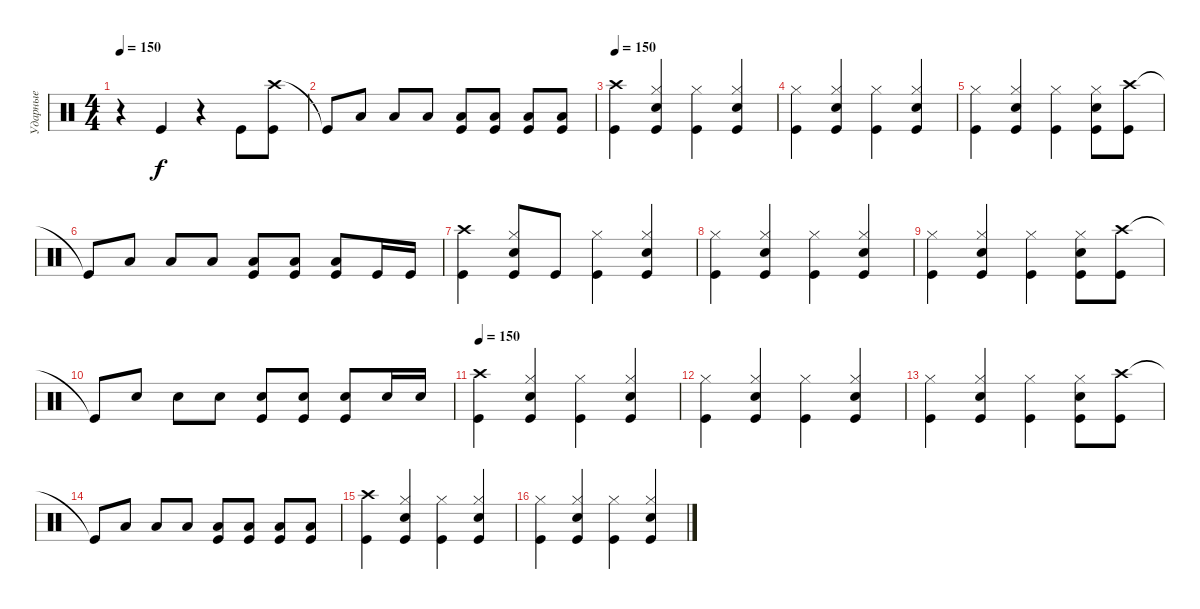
\track ("Ударные" "Ударные") {instrument percussion}
\staff {score}
\articulation defaults
\ts (4 4)
\tempo 150
\clef neutral
\ks c
r.4{dy f} "Kick (hit)".4 r.4 "Kick (hit)".8 ("Crash high (hit)" "Kick (hit)").8 |
"Kick (hit)"{t}.8 "Low Tom (hit)".8 "Low Tom (hit)".8 "Low Tom (hit)".8 ("Low Tom (hit)" "Kick (hit)").8 ("Low Tom (hit)" "Kick (hit)").8 ("Low Tom (hit)" "Kick (hit)").8 ("Low Tom (hit)" "Kick (hit)").8 |
\tempo 150
("Crash high (hit)" "Kick (hit)").4 ("Hi-Hat (closed)" "Electric Snare (hit)" "Kick (hit)").4 ("Hi-Hat (closed)" "Kick (hit)").4 ("Hi-Hat (closed)" "Electric Snare (hit)" "Kick (hit)").4 |
("Hi-Hat (closed)" "Kick (hit)").4 ("Hi-Hat (closed)" "Electric Snare (hit)" "Kick (hit)").4 ("Hi-Hat (closed)" "Kick (hit)").4 ("Hi-Hat (closed)" "Electric Snare (hit)" "Kick (hit)").4 |
("Hi-Hat (closed)" "Kick (hit)").4 ("Hi-Hat (closed)" "Electric Snare (hit)" "Kick (hit)").4 ("Hi-Hat (closed)" "Kick (hit)").4 ("Hi-Hat (closed)" "Electric Snare (hit)" "Kick (hit)").8 ("Crash high (hit)" "Kick (hit)").8 |
"Kick (hit)"{t}.8 "Low Tom (hit)".8 "Low Tom (hit)".8 "Low Tom (hit)".8 ("Low Tom (hit)" "Kick (hit)").8 ("Low Tom (hit)" "Kick (hit)").8 ("Low Tom (hit)" "Kick (hit)").8 "Kick (hit)".16 "Kick (hit)".16 |
("Crash high (hit)" "Kick (hit)").4 ("Hi-Hat (closed)" "Electric Snare (hit)" "Kick (hit)").8 "Kick (hit)".8 ("Hi-Hat (closed)" "Kick (hit)").4 ("Hi-Hat (closed)" "Electric Snare (hit)" "Kick (hit)").4 |
("Hi-Hat (closed)" "Kick (hit)").4 ("Hi-Hat (closed)" "Electric Snare (hit)" "Kick (hit)").4 ("Hi-Hat (closed)" "Kick (hit)").4 ("Hi-Hat (closed)" "Electric Snare (hit)" "Kick (hit)").4 |
("Hi-Hat (closed)" "Kick (hit)").4 ("Hi-Hat (closed)" "Electric Snare (hit)" "Kick (hit)").4 ("Hi-Hat (closed)" "Kick (hit)").4 ("Hi-Hat (closed)" "Electric Snare (hit)" "Kick (hit)").8 ("Crash high (hit)" "Kick (hit)").8 |
"Kick (hit)"{t}.8 "Electric Snare (hit)".8 "Electric Snare (hit)".8 "Electric Snare (hit)".8 ("Electric Snare (hit)" "Kick (hit)").8 ("Electric Snare (hit)" "Kick (hit)").8 ("Electric Snare (hit)" "Kick (hit)").8 "Electric Snare (hit)".16 "Electric Snare (hit)".16 |
\tempo 150
("Crash high (hit)" "Kick (hit)").4 ("Hi-Hat (closed)" "Electric Snare (hit)" "Kick (hit)").4 ("Hi-Hat (closed)" "Kick (hit)").4 ("Hi-Hat (closed)" "Electric Snare (hit)" "Kick (hit)").4 |
("Hi-Hat (closed)" "Kick (hit)").4 ("Hi-Hat (closed)" "Electric Snare (hit)" "Kick (hit)").4 ("Hi-Hat (closed)" "Kick (hit)").4 ("Hi-Hat (closed)" "Electric Snare (hit)" "Kick (hit)").4 |
("Hi-Hat (closed)" "Kick (hit)").4 ("Hi-Hat (closed)" "Electric Snare (hit)" "Kick (hit)").4 ("Hi-Hat (closed)" "Kick (hit)").4 ("Hi-Hat (closed)" "Electric Snare (hit)" "Kick (hit)").8 ("Crash high (hit)" "Kick (hit)").8 |
"Kick (hit)"{t}.8 "Low Tom (hit)".8 "Low Tom (hit)".8 "Low Tom (hit)".8 ("Low Tom (hit)" "Kick (hit)").8 ("Low Tom (hit)" "Kick (hit)").8 ("Low Tom (hit)" "Kick (hit)").8 ("Low Tom (hit)" "Kick (hit)").8 |
("Crash high (hit)" "Kick (hit)").4 ("Hi-Hat (closed)" "Electric Snare (hit)" "Kick (hit)").4 ("Hi-Hat (closed)" "Kick (hit)").4 ("Hi-Hat (closed)" "Electric Snare (hit)" "Kick (hit)").4 |
("Hi-Hat (closed)" "Kick (hit)").4 ("Hi-Hat (closed)" "Electric Snare (hit)" "Kick (hit)").4 ("Hi-Hat (closed)" "Kick (hit)").4 ("Hi-Hat (closed)" "Electric Snare (hit)" "Kick (hit)").4
